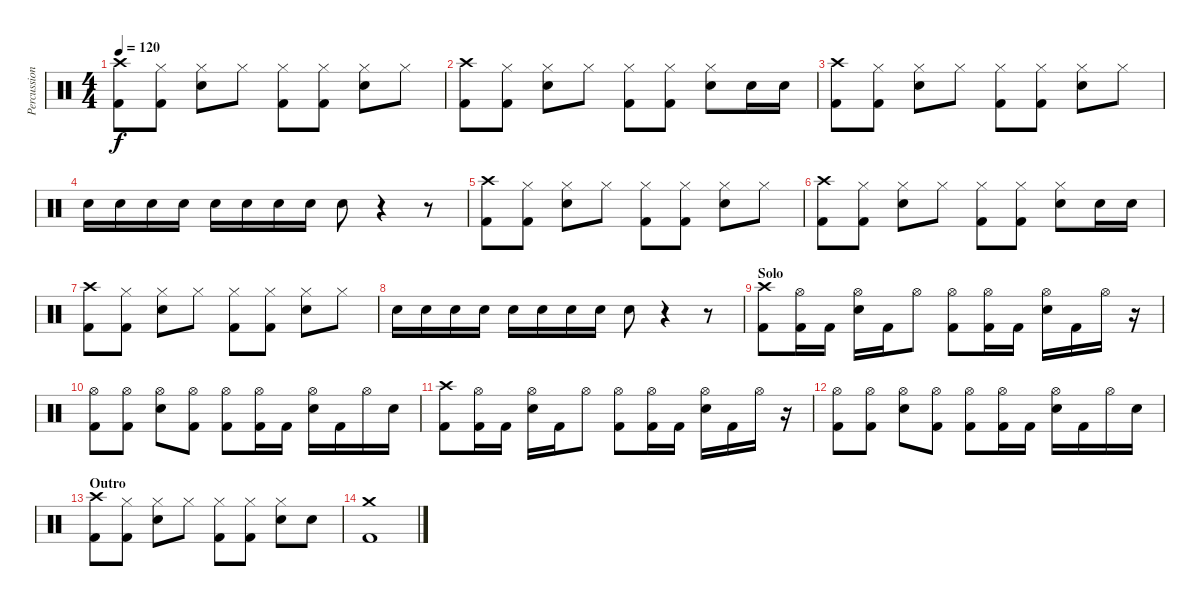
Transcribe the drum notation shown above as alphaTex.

\track ("Percussion" "Percussion") {instrument percussion}
\staff {score}
\articulation defaults
\ts (4 4)
\tempo 120
\clef neutral
\ks c
("Crash high (hit)" "Kick (hit) 2").8{dy f} ("Hi-Hat (closed)" "Kick (hit) 2").8 ("Hi-Hat (closed)" "Electric Snare (hit)").8 "Hi-Hat (closed)".8 ("Hi-Hat (closed)" "Kick (hit) 2").8 ("Hi-Hat (closed)" "Kick (hit) 2").8 ("Hi-Hat (closed)" "Electric Snare (hit)").8 "Hi-Hat (closed)".8 |
("Crash high (hit)" "Kick (hit) 2").8 ("Hi-Hat (closed)" "Kick (hit) 2").8 ("Hi-Hat (closed)" "Electric Snare (hit)").8 "Hi-Hat (closed)".8 ("Hi-Hat (closed)" "Kick (hit) 2").8 ("Hi-Hat (closed)" "Kick (hit) 2").8 ("Hi-Hat (closed)" "Electric Snare (hit)").8 "Electric Snare (hit)".16 "Electric Snare (hit)".16 |
("Crash high (hit)" "Kick (hit) 2").8 ("Hi-Hat (closed)" "Kick (hit) 2").8 ("Hi-Hat (closed)" "Electric Snare (hit)").8 "Hi-Hat (closed)".8 ("Hi-Hat (closed)" "Kick (hit) 2").8 ("Hi-Hat (closed)" "Kick (hit) 2").8 ("Hi-Hat (closed)" "Electric Snare (hit)").8 "Hi-Hat (closed)".8 |
"Electric Snare (hit)".16 "Electric Snare (hit)".16 "Electric Snare (hit)".16 "Electric Snare (hit)".16 "Electric Snare (hit)".16 "Electric Snare (hit)".16 "Electric Snare (hit)".16 "Electric Snare (hit)".16 "Electric Snare (hit)".8 r.4 r.8 |
("Crash high (hit)" "Kick (hit) 2").8 ("Hi-Hat (closed)" "Kick (hit) 2").8 ("Hi-Hat (closed)" "Electric Snare (hit)").8 "Hi-Hat (closed)".8 ("Hi-Hat (closed)" "Kick (hit) 2").8 ("Hi-Hat (closed)" "Kick (hit) 2").8 ("Hi-Hat (closed)" "Electric Snare (hit)").8 "Hi-Hat (closed)".8 |
("Crash high (hit)" "Kick (hit) 2").8 ("Hi-Hat (closed)" "Kick (hit) 2").8 ("Hi-Hat (closed)" "Electric Snare (hit)").8 "Hi-Hat (closed)".8 ("Hi-Hat (closed)" "Kick (hit) 2").8 ("Hi-Hat (closed)" "Kick (hit) 2").8 ("Hi-Hat (closed)" "Electric Snare (hit)").8 "Electric Snare (hit)".16 "Electric Snare (hit)".16 |
("Crash high (hit)" "Kick (hit) 2").8 ("Hi-Hat (closed)" "Kick (hit) 2").8 ("Hi-Hat (closed)" "Electric Snare (hit)").8 "Hi-Hat (closed)".8 ("Hi-Hat (closed)" "Kick (hit) 2").8 ("Hi-Hat (closed)" "Kick (hit) 2").8 ("Hi-Hat (closed)" "Electric Snare (hit)").8 "Hi-Hat (closed)".8 |
"Electric Snare (hit)".16 "Electric Snare (hit)".16 "Electric Snare (hit)".16 "Electric Snare (hit)".16 "Electric Snare (hit)".16 "Electric Snare (hit)".16 "Electric Snare (hit)".16 "Electric Snare (hit)".16 "Electric Snare (hit)".8 r.4 r.8 |
\section ("" "Solo")
("Crash high (hit)" "Kick (hit) 2").8 ("Hi-Hat (open)" "Kick (hit) 2").16 "Kick (hit) 2".16 ("Hi-Hat (open)" "Electric Snare (hit)").16 "Kick (hit) 2".16 "Hi-Hat (open)".8 ("Hi-Hat (open)" "Kick (hit) 2").8 ("Hi-Hat (open)" "Kick (hit) 2").16 "Kick (hit) 2".16 ("Hi-Hat (open)" "Electric Snare (hit)").16 "Kick (hit) 2".16 "Hi-Hat (open)".16 r.16 |
("Hi-Hat (open)" "Kick (hit) 2").8 ("Hi-Hat (open)" "Kick (hit) 2").8 ("Hi-Hat (open)" "Electric Snare (hit)").8 ("Hi-Hat (open)" "Kick (hit) 2").8 ("Hi-Hat (open)" "Kick (hit) 2").8 ("Hi-Hat (open)" "Kick (hit) 2").16 "Kick (hit) 2".16 ("Hi-Hat (open)" "Electric Snare (hit)").16 "Kick (hit) 2".16 "Hi-Hat (open)".16 "Electric Snare (hit)".16 |
("Crash high (hit)" "Kick (hit) 2").8 ("Hi-Hat (open)" "Kick (hit) 2").16 "Kick (hit) 2".16 ("Hi-Hat (open)" "Electric Snare (hit)").16 "Kick (hit) 2".16 "Hi-Hat (open)".8 ("Hi-Hat (open)" "Kick (hit) 2").8 ("Hi-Hat (open)" "Kick (hit) 2").16 "Kick (hit) 2".16 ("Hi-Hat (open)" "Electric Snare (hit)").16 "Kick (hit) 2".16 "Hi-Hat (open)".16 r.16 |
("Hi-Hat (open)" "Kick (hit) 2").8 ("Hi-Hat (open)" "Kick (hit) 2").8 ("Hi-Hat (open)" "Electric Snare (hit)").8 ("Hi-Hat (open)" "Kick (hit) 2").8 ("Hi-Hat (open)" "Kick (hit) 2").8 ("Hi-Hat (open)" "Kick (hit) 2").16 "Kick (hit) 2".16 ("Hi-Hat (open)" "Electric Snare (hit)").16 "Kick (hit) 2".16 "Hi-Hat (open)".16 "Electric Snare (hit)".16 |
\section ("" "Outro")
("Crash high (hit)" "Kick (hit) 2").8 ("Hi-Hat (closed)" "Kick (hit) 2").8 ("Hi-Hat (closed)" "Electric Snare (hit)").8 "Hi-Hat (closed)".8 ("Hi-Hat (closed)" "Kick (hit) 2").8 ("Hi-Hat (closed)" "Kick (hit) 2").8 ("Hi-Hat (closed)" "Electric Snare (hit)").8 "Electric Snare (hit)".8 |
("Crash medium (hit)" "Kick (hit) 2").1
